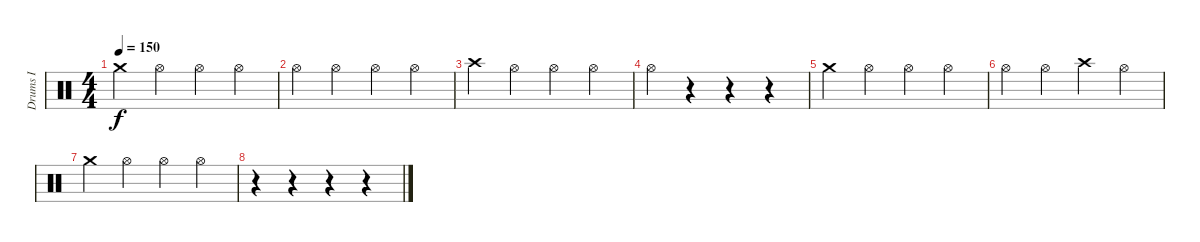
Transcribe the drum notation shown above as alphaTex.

\track ("Drums I" "Drums I") {instrument percussion}
\staff {score}
\articulation defaults
\ts (4 4)
\tempo 150
\clef neutral
\ks c "Crash medium (hit)".4{dy f} "Hi-Hat (open)".4 "Hi-Hat (open)".4 "Hi-Hat (open)".4
|
"Hi-Hat (open)".4 "Hi-Hat (open)".4 "Hi-Hat (open)".4 "Hi-Hat (open)".4 |
"Crash high (hit)".4 "Hi-Hat (open)".4 "Hi-Hat (open)".4 "Hi-Hat (open)".4 |
"Hi-Hat (open)".4 r.4 r.4 r.4 |
"Crash medium (hit)".4 "Hi-Hat (open)".4 "Hi-Hat (open)".4 "Hi-Hat (open)".4 |
"Hi-Hat (open)".4 "Hi-Hat (open)".4 "Crash high (hit)".4 "Hi-Hat (open)".4 |
"Crash medium (hit)".4 "Hi-Hat (open)".4 "Hi-Hat (open)".4 "Hi-Hat (open)".4 |
r.4 r.4 r.4 r.4
